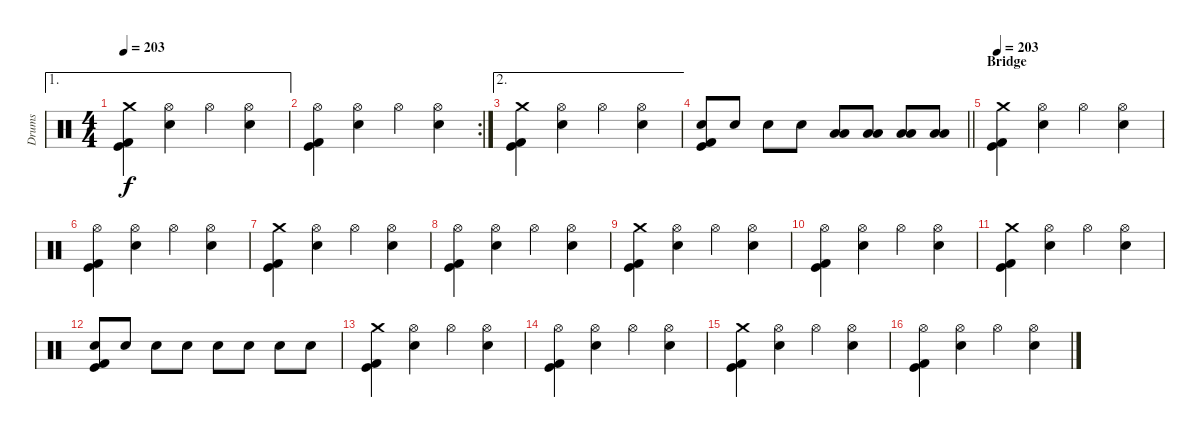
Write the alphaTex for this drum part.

\track ("Drums" "Drums") {instrument percussion}
\staff {score}
\articulation defaults
\ae 1
\ts (4 4)
\tempo 203
\clef neutral
\ks c
("Crash medium (hit)" "Kick (hit)" "Kick (hit) 2").4{dy f} ("Hi-Hat (open)" "Electric Snare (hit)").4 "Hi-Hat (open)".4 ("Hi-Hat (open)" "Electric Snare (hit)").4 |
\rc 2
("Hi-Hat (open)" "Kick (hit)" "Kick (hit) 2").4 ("Hi-Hat (open)" "Electric Snare (hit)").4 "Hi-Hat (open)".4 ("Hi-Hat (open)" "Electric Snare (hit)").4 |
\ae 2
("Crash medium (hit)" "Kick (hit)" "Kick (hit) 2").4 ("Hi-Hat (open)" "Electric Snare (hit)").4 "Hi-Hat (open)".4 ("Hi-Hat (open)" "Electric Snare (hit)").4 |
\barLineRight lightlight
("Electric Snare (hit)" "Kick (hit)" "Kick (hit) 2").8 "Electric Snare (hit)".8 "Electric Snare (hit)".8 "Electric Snare (hit)".8 ("Low Floor Tom (hit)" "Low Tom (hit)").8 ("Low Floor Tom (hit)" "Low Tom (hit)").8 ("Low Floor Tom (hit)" "Low Tom (hit)").8 ("Low Floor Tom (hit)" "Low Tom (hit)").8 |
\section ("" "Bridge")
\tempo 203
("Crash medium (hit)" "Kick (hit)" "Kick (hit) 2").4 ("Hi-Hat (open)" "Electric Snare (hit)").4 "Hi-Hat (open)".4 ("Hi-Hat (open)" "Electric Snare (hit)").4 |
("Hi-Hat (open)" "Kick (hit)" "Kick (hit) 2").4 ("Hi-Hat (open)" "Electric Snare (hit)").4 "Hi-Hat (open)".4 ("Hi-Hat (open)" "Electric Snare (hit)").4 |
("Crash medium (hit)" "Kick (hit)" "Kick (hit) 2").4 ("Hi-Hat (open)" "Electric Snare (hit)").4 "Hi-Hat (open)".4 ("Hi-Hat (open)" "Electric Snare (hit)").4 |
("Hi-Hat (open)" "Kick (hit)" "Kick (hit) 2").4 ("Hi-Hat (open)" "Electric Snare (hit)").4 "Hi-Hat (open)".4 ("Hi-Hat (open)" "Electric Snare (hit)").4 |
("Crash medium (hit)" "Kick (hit)" "Kick (hit) 2").4 ("Hi-Hat (open)" "Electric Snare (hit)").4 "Hi-Hat (open)".4 ("Hi-Hat (open)" "Electric Snare (hit)").4 |
("Hi-Hat (open)" "Kick (hit)" "Kick (hit) 2").4 ("Hi-Hat (open)" "Electric Snare (hit)").4 "Hi-Hat (open)".4 ("Hi-Hat (open)" "Electric Snare (hit)").4 |
("Crash medium (hit)" "Kick (hit)" "Kick (hit) 2").4 ("Hi-Hat (open)" "Electric Snare (hit)").4 "Hi-Hat (open)".4 ("Hi-Hat (open)" "Electric Snare (hit)").4 |
("Electric Snare (hit)" "Kick (hit)" "Kick (hit) 2").8 "Electric Snare (hit)".8 "Electric Snare (hit)".8 "Electric Snare (hit)".8 "Electric Snare (hit)".8 "Electric Snare (hit)".8 "Electric Snare (hit)".8 "Electric Snare (hit)".8 |
("Crash medium (hit)" "Kick (hit)" "Kick (hit) 2").4 ("Hi-Hat (open)" "Electric Snare (hit)").4 "Hi-Hat (open)".4 ("Hi-Hat (open)" "Electric Snare (hit)").4 |
("Hi-Hat (open)" "Kick (hit)" "Kick (hit) 2").4 ("Hi-Hat (open)" "Electric Snare (hit)").4 "Hi-Hat (open)".4 ("Hi-Hat (open)" "Electric Snare (hit)").4 |
("Crash medium (hit)" "Kick (hit)" "Kick (hit) 2").4 ("Hi-Hat (open)" "Electric Snare (hit)").4 "Hi-Hat (open)".4 ("Hi-Hat (open)" "Electric Snare (hit)").4 |
("Hi-Hat (open)" "Kick (hit)" "Kick (hit) 2").4 ("Hi-Hat (open)" "Electric Snare (hit)").4 "Hi-Hat (open)".4 ("Hi-Hat (open)" "Electric Snare (hit)").4
